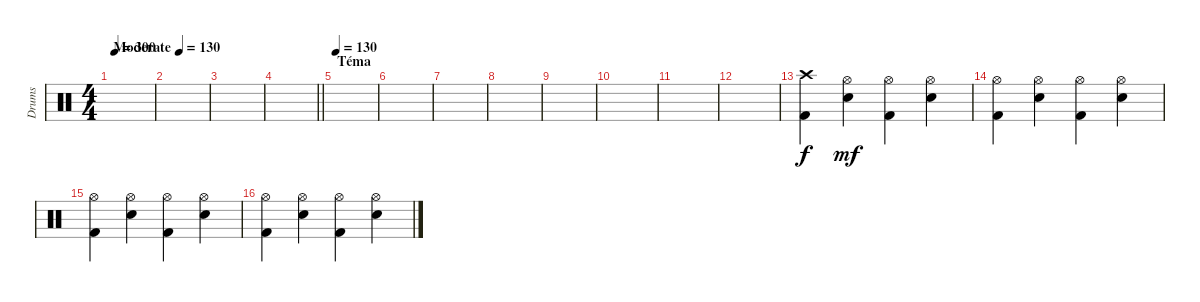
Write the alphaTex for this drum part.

\track ("Drums" "Drums") {instrument percussion}
\staff {score}
\articulation defaults
\ts (4 4)
\tempo (130 "Moderate")
\tempo 20
\tempo (300 0.0625)
\tempo (130 "Moderate")
\clef neutral
\ks c
|
|
|
\barLineRight lightlight
|
\section ("" "Téma")
\tempo 130
|
|
|
|
|
|
|
|
("Crash high (hit)" "Kick (hit) 2").4 ("Hi-Hat (open)" "Electric Snare (hit)").4{dy mf} ("Hi-Hat (open)" "Kick (hit) 2").4 ("Hi-Hat (open)" "Electric Snare (hit)").4 |
("Hi-Hat (open)" "Kick (hit) 2").4 ("Hi-Hat (open)" "Electric Snare (hit)").4 ("Hi-Hat (open)" "Kick (hit) 2").4 ("Hi-Hat (open)" "Electric Snare (hit)").4 |
("Hi-Hat (open)" "Kick (hit) 2").4 ("Hi-Hat (open)" "Electric Snare (hit)").4 ("Hi-Hat (open)" "Kick (hit) 2").4 ("Hi-Hat (open)" "Electric Snare (hit)").4 |
("Hi-Hat (open)" "Kick (hit) 2").4 ("Hi-Hat (open)" "Electric Snare (hit)").4 ("Hi-Hat (open)" "Kick (hit) 2").4 ("Hi-Hat (open)" "Electric Snare (hit)").4
